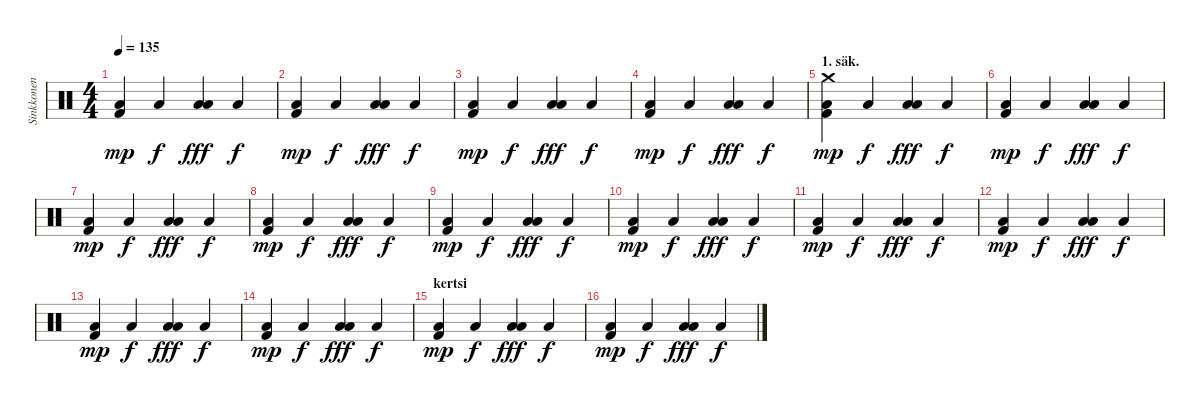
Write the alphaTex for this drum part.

\track ("Sinkkonen" "Sinkkonen") {instrument percussion}
\staff {score}
\articulation defaults
\ts (4 4)
\tempo 135
\clef neutral
\ks c
("Kick (hit) 2" "Low Floor Tom (hit)").4{dy mp} "Low Floor Tom (hit)".4{dy f} ("Low Floor Tom (hit)" "Low Floor Tom (hit)").4{dy fff} "Low Floor Tom (hit)".4{dy f} |
("Kick (hit) 2" "Low Floor Tom (hit)").4{dy mp} "Low Floor Tom (hit)".4{dy f} ("Low Floor Tom (hit)" "Low Floor Tom (hit)").4{dy fff} "Low Floor Tom (hit)".4{dy f} |
("Kick (hit) 2" "Low Floor Tom (hit)").4{dy mp} "Low Floor Tom (hit)".4{dy f} ("Low Floor Tom (hit)" "Low Floor Tom (hit)").4{dy fff} "Low Floor Tom (hit)".4{dy f} |
("Kick (hit) 2" "Low Floor Tom (hit)").4{dy mp} "Low Floor Tom (hit)".4{dy f} ("Low Floor Tom (hit)" "Low Floor Tom (hit)").4{dy fff} "Low Floor Tom (hit)".4{dy f} |
\section ("" "1. säk.")
("Kick (hit) 2" "Crash medium (hit)" "Low Floor Tom (hit)").4{dy mp} "Low Floor Tom (hit)".4{dy f} ("Low Floor Tom (hit)" "Low Floor Tom (hit)").4{dy fff} "Low Floor Tom (hit)".4{dy f} |
("Kick (hit) 2" "Low Floor Tom (hit)").4{dy mp} "Low Floor Tom (hit)".4{dy f} ("Low Floor Tom (hit)" "Low Floor Tom (hit)").4{dy fff} "Low Floor Tom (hit)".4{dy f} |
("Kick (hit) 2" "Low Floor Tom (hit)").4{dy mp} "Low Floor Tom (hit)".4{dy f} ("Low Floor Tom (hit)" "Low Floor Tom (hit)").4{dy fff} "Low Floor Tom (hit)".4{dy f} |
("Kick (hit) 2" "Low Floor Tom (hit)").4{dy mp} "Low Floor Tom (hit)".4{dy f} ("Low Floor Tom (hit)" "Low Floor Tom (hit)").4{dy fff} "Low Floor Tom (hit)".4{dy f} |
("Kick (hit) 2" "Low Floor Tom (hit)").4{dy mp} "Low Floor Tom (hit)".4{dy f} ("Low Floor Tom (hit)" "Low Floor Tom (hit)").4{dy fff} "Low Floor Tom (hit)".4{dy f} |
("Kick (hit) 2" "Low Floor Tom (hit)").4{dy mp} "Low Floor Tom (hit)".4{dy f} ("Low Floor Tom (hit)" "Low Floor Tom (hit)").4{dy fff} "Low Floor Tom (hit)".4{dy f} |
("Kick (hit) 2" "Low Floor Tom (hit)").4{dy mp} "Low Floor Tom (hit)".4{dy f} ("Low Floor Tom (hit)" "Low Floor Tom (hit)").4{dy fff} "Low Floor Tom (hit)".4{dy f} |
("Kick (hit) 2" "Low Floor Tom (hit)").4{dy mp} "Low Floor Tom (hit)".4{dy f} ("Low Floor Tom (hit)" "Low Floor Tom (hit)").4{dy fff} "Low Floor Tom (hit)".4{dy f} |
("Kick (hit) 2" "Low Floor Tom (hit)").4{dy mp} "Low Floor Tom (hit)".4{dy f} ("Low Floor Tom (hit)" "Low Floor Tom (hit)").4{dy fff} "Low Floor Tom (hit)".4{dy f} |
("Kick (hit) 2" "Low Floor Tom (hit)").4{dy mp} "Low Floor Tom (hit)".4{dy f} ("Low Floor Tom (hit)" "Low Floor Tom (hit)").4{dy fff} "Low Floor Tom (hit)".4{dy f} |
\section ("" "kertsi")
("Kick (hit) 2" "Low Floor Tom (hit)").4{dy mp} "Low Floor Tom (hit)".4{dy f} ("Low Floor Tom (hit)" "Low Floor Tom (hit)").4{dy fff} "Low Floor Tom (hit)".4{dy f} |
("Kick (hit) 2" "Low Floor Tom (hit)").4{dy mp} "Low Floor Tom (hit)".4{dy f} ("Low Floor Tom (hit)" "Low Floor Tom (hit)").4{dy fff} "Low Floor Tom (hit)".4{dy f}
